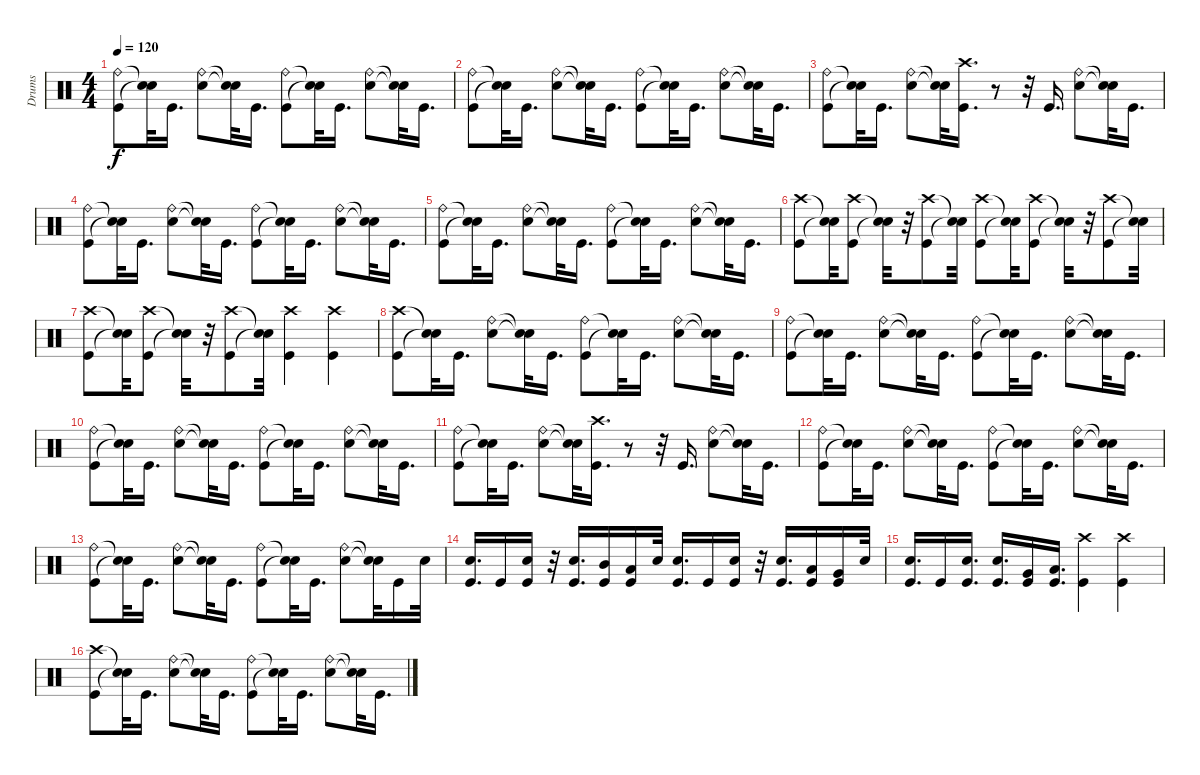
\track ("Drums" "Drums") {instrument percussion}
\staff {score}
\articulation defaults
\ts (4 4)
\tempo 120
\clef neutral
\ks c
("Kick (hit)" "Ride (bell)").8{dy f} ("Snare (hit)"{t} "Snare (hit)"{t}).32 "Kick (hit)".16{d} ("Ride (bell)" "Snare (hit) 2").8 ("Snare (hit)"{t} "Snare (hit)"{t}).32 "Kick (hit)".16{d} ("Ride (bell)" "Kick (hit)").8 ("Snare (hit)"{t} "Snare (hit)"{t}).32 "Kick (hit)".16{d} ("Ride (bell)" "Snare (hit) 2").8 ("Snare (hit)"{t} "Snare (hit)"{t}).32 "Kick (hit)".16{d} |
("Ride (bell)" "Kick (hit)").8 ("Snare (hit)"{t} "Snare (hit)"{t}).32 "Kick (hit)".16{d} ("Snare (hit) 2" "Ride (bell)").8 ("Snare (hit)"{t} "Snare (hit)"{t}).32 "Kick (hit)".16{d} ("Ride (bell)" "Kick (hit)").8 ("Snare (hit)"{t} "Snare (hit)"{t}).32 "Kick (hit)".16{d} ("Ride (bell)" "Snare (hit) 2").8 ("Snare (hit)"{t} "Snare (hit)"{t}).32 "Kick (hit)".16{d} |
("Kick (hit)" "Ride (bell)").8 ("Snare (hit)"{t} "Snare (hit)"{t}).32 "Kick (hit)".16{d} ("Snare (hit) 2" "Ride (bell)").8 ("Snare (hit)"{t} "Snare (hit)"{t}).32 ("Crash high (hit)" "Kick (hit)").16{d} r.8 r.32 "Kick (hit)".16{d} ("Snare (hit) 2" "Ride (bell)").8 ("Snare (hit)"{t} "Snare (hit)"{t}).32 "Kick (hit)".16{d} |
("Ride (bell)" "Kick (hit)").8 ("Snare (hit)"{t} "Snare (hit)"{t}).32 "Kick (hit)".16{d} ("Snare (hit) 2" "Ride (bell)").8 ("Snare (hit)"{t} "Snare (hit)"{t}).32 "Kick (hit)".16{d} ("Kick (hit)" "Ride (bell)").8 ("Snare (hit)"{t} "Snare (hit)"{t}).32 "Kick (hit)".16{d} ("Ride (bell)" "Snare (hit) 2").8 ("Snare (hit)"{t} "Snare (hit)"{t}).32 "Kick (hit)".16{d} |
("Ride (bell)" "Kick (hit)").8 ("Snare (hit)"{t} "Snare (hit)"{t}).32 "Kick (hit)".16{d} ("Snare (hit) 2" "Ride (bell)").8 ("Snare (hit)"{t} "Snare (hit)"{t}).32 "Kick (hit)".16{d} ("Ride (bell)" "Kick (hit)").8 ("Snare (hit)"{t} "Snare (hit)"{t}).32 "Kick (hit)".16{d} ("Snare (hit) 2" "Ride (bell)").8 ("Snare (hit)"{t} "Snare (hit)"{t}).32 "Kick (hit)".16{d} |
("Kick (hit)" "Crash high (hit)").8 ("Snare (hit)"{t} "Snare (hit)"{t}).32 ("Kick (hit)" "Crash high (hit)").8 ("Snare (hit)"{t} "Snare (hit)"{t}).32 r.32 ("Kick (hit)" "Crash high (hit)").8 ("Snare (hit)"{t} "Snare (hit)"{t}).32 ("Kick (hit)" "Crash high (hit)").8 ("Snare (hit)"{t} "Snare (hit)"{t}).32 ("Kick (hit)" "Crash high (hit)").8 ("Snare (hit)"{t} "Snare (hit)"{t}).32 r.32 ("Kick (hit)" "Crash high (hit)").8 ("Snare (hit)"{t} "Snare (hit)"{t}).32 |
("Kick (hit)" "Crash high (hit)").8 ("Snare (hit)"{t} "Snare (hit)"{t}).32 ("Kick (hit)" "Crash high (hit)").8 ("Snare (hit)"{t} "Snare (hit)"{t}).32 r.32 ("Kick (hit)" "Crash high (hit)").8 ("Snare (hit)"{t} "Snare (hit)"{t}).32 ("Kick (hit)" "Crash high (hit)").4 ("Kick (hit)" "Crash high (hit)").4 |
("Kick (hit)" "Crash high (hit)").8 ("Snare (hit)"{t} "Snare (hit)"{t}).32 "Kick (hit)".16{d} ("Snare (hit) 2" "Ride (bell)").8 ("Snare (hit)"{t} "Snare (hit)"{t}).32 "Kick (hit)".16{d} ("Ride (bell)" "Kick (hit)").8 ("Snare (hit)"{t} "Snare (hit)"{t}).32 "Kick (hit)".16{d} ("Snare (hit) 2" "Ride (bell)").8 ("Snare (hit)"{t} "Snare (hit)"{t}).32 "Kick (hit)".16{d} |
("Kick (hit)" "Ride (bell)").8 ("Snare (hit)"{t} "Snare (hit)"{t}).32 "Kick (hit)".16{d} ("Ride (bell)" "Snare (hit) 2").8 ("Snare (hit)"{t} "Snare (hit)"{t}).32 "Kick (hit)".16{d} ("Ride (bell)" "Kick (hit)").8 ("Snare (hit)"{t} "Snare (hit)"{t}).32 "Kick (hit)".16{d} ("Ride (bell)" "Snare (hit) 2").8 ("Snare (hit)"{t} "Snare (hit)"{t}).32 "Kick (hit)".16{d} |
("Ride (bell)" "Kick (hit)").8 ("Snare (hit)"{t} "Snare (hit)"{t}).32 "Kick (hit)".16{d} ("Snare (hit) 2" "Ride (bell)").8 ("Snare (hit)"{t} "Snare (hit)"{t}).32 "Kick (hit)".16{d} ("Ride (bell)" "Kick (hit)").8 ("Snare (hit)"{t} "Snare (hit)"{t}).32 "Kick (hit)".16{d} ("Ride (bell)" "Snare (hit) 2").8 ("Snare (hit)"{t} "Snare (hit)"{t}).32 "Kick (hit)".16{d} |
("Kick (hit)" "Ride (bell)").8 ("Snare (hit)"{t} "Snare (hit)"{t}).32 "Kick (hit)".16{d} ("Snare (hit) 2" "Ride (bell)").8 ("Snare (hit)"{t} "Snare (hit)"{t}).32 ("Crash high (hit)" "Kick (hit)").16{d} r.8 r.32 "Kick (hit)".16{d} ("Snare (hit) 2" "Ride (bell)").8 ("Snare (hit)"{t} "Snare (hit)"{t}).32 "Kick (hit)".16{d} |
("Ride (bell)" "Kick (hit)").8 ("Snare (hit)"{t} "Snare (hit)"{t}).32 "Kick (hit)".16{d} ("Snare (hit) 2" "Ride (bell)").8 ("Snare (hit)"{t} "Snare (hit)"{t}).32 "Kick (hit)".16{d} ("Kick (hit)" "Ride (bell)").8 ("Snare (hit)"{t} "Snare (hit)"{t}).32 "Kick (hit)".16{d} ("Ride (bell)" "Snare (hit) 2").8 ("Snare (hit)"{t} "Snare (hit)"{t}).32 "Kick (hit)".16{d} |
("Ride (bell)" "Kick (hit)").8 ("Snare (hit)"{t} "Snare (hit)"{t}).32 "Kick (hit)".16{d} ("Snare (hit) 2" "Ride (bell)").8 ("Snare (hit)"{t} "Snare (hit)"{t}).32 "Kick (hit)".16{d} ("Ride (bell)" "Kick (hit)").8 ("Snare (hit)"{t} "Snare (hit)"{t}).32 "Kick (hit)".16{d} ("Snare (hit) 2" "Ride (bell)").8 ("Snare (hit)"{t} "Snare (hit)"{t}).32 "Kick (hit)".16 "Snare (hit) 2".32 |
("Kick (hit)" "Snare (hit) 2").16{d} "Kick (hit)".16 ("Snare (hit) 2" "Kick (hit)").16 r.32 ("Snare (hit) 2" "Kick (hit)").16{d} ("Mid Tom (hit)" "Kick (hit)").16 ("Kick (hit)" "Low Tom (hit)").16 "Snare (hit) 2".32 ("Kick (hit)" "Snare (hit) 2").16{d} "Kick (hit)".16 ("Kick (hit)" "Snare (hit) 2").16 r.32 ("Kick (hit)" "Snare (hit) 2").16{d} ("Kick (hit)" "Low Tom (hit)").16 ("Kick (hit)" "Very Low Tom (hit)").16 "Snare (hit) 2".32 |
("Snare (hit) 2" "Kick (hit)").16{d} "Kick (hit)".16 ("Snare (hit) 2" "Kick (hit)").16{d} ("Snare (hit) 2" "Kick (hit)").16{d} ("Kick (hit)" "Very Low Tom (hit)").16 ("Low Floor Tom (hit)" "Kick (hit)").16{d} ("Crash high (hit)" "Kick (hit)").4 ("Crash high (hit)" "Kick (hit)").4 |
("Kick (hit)" "Crash high (hit)").8 ("Snare (hit)"{t} "Snare (hit)"{t}).32 "Kick (hit)".16{d} ("Snare (hit) 2" "Ride (bell)").8 ("Snare (hit)"{t} "Snare (hit)"{t}).32 "Kick (hit)".16{d} ("Ride (bell)" "Kick (hit)").8 ("Snare (hit)"{t} "Snare (hit)"{t}).32 "Kick (hit)".16{d} ("Snare (hit) 2" "Ride (bell)").8 ("Snare (hit)"{t} "Snare (hit)"{t}).32 "Kick (hit)".16{d}
